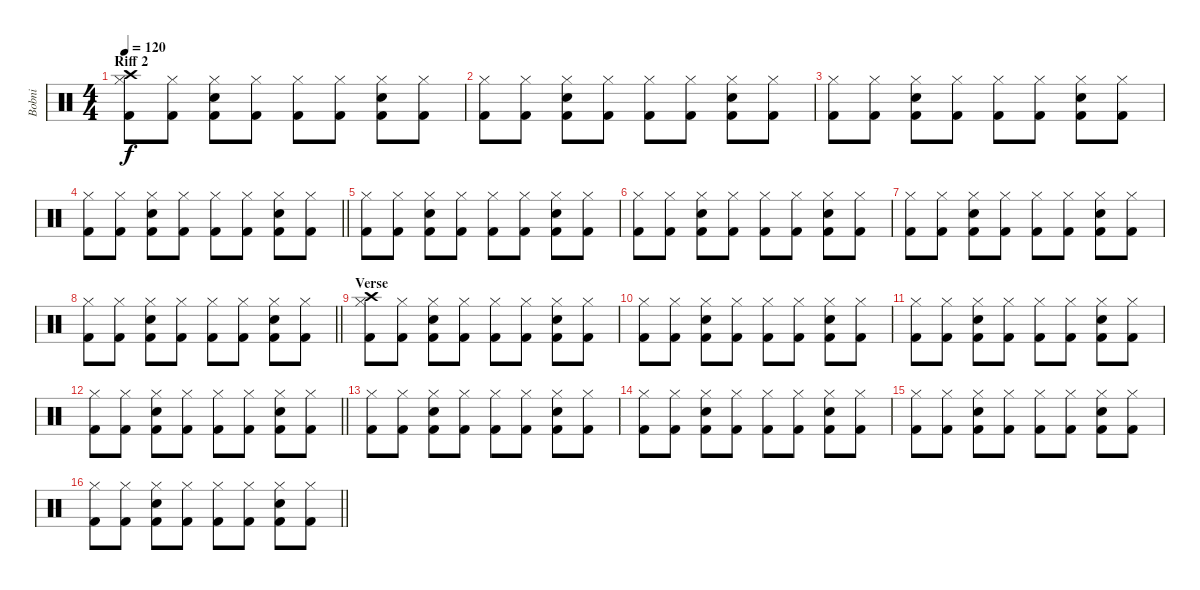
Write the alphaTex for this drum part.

\track ("Bobni" "Bobni") {instrument percussion}
\staff {score}
\articulation defaults
\ts (4 4)
\section ("" "Riff 2")
\tempo 120
\clef neutral
\ks c
("Crash high (hit)" "Hi-Hat (closed)" "Kick (hit) 2").8{dy f} ("Hi-Hat (closed)" "Kick (hit) 2").8 ("Hi-Hat (closed)" "Electric Snare (hit)" "Kick (hit) 2").8 ("Hi-Hat (closed)" "Kick (hit) 2").8 ("Hi-Hat (closed)" "Kick (hit) 2").8 ("Hi-Hat (closed)" "Kick (hit) 2").8 ("Hi-Hat (closed)" "Electric Snare (hit)" "Kick (hit) 2").8 ("Hi-Hat (closed)" "Kick (hit) 2").8 |
("Hi-Hat (closed)" "Kick (hit) 2").8 ("Hi-Hat (closed)" "Kick (hit) 2").8 ("Hi-Hat (closed)" "Electric Snare (hit)" "Kick (hit) 2").8 ("Hi-Hat (closed)" "Kick (hit) 2").8 ("Hi-Hat (closed)" "Kick (hit) 2").8 ("Hi-Hat (closed)" "Kick (hit) 2").8 ("Hi-Hat (closed)" "Electric Snare (hit)" "Kick (hit) 2").8 ("Hi-Hat (closed)" "Kick (hit) 2").8 |
("Hi-Hat (closed)" "Kick (hit) 2").8 ("Hi-Hat (closed)" "Kick (hit) 2").8 ("Hi-Hat (closed)" "Electric Snare (hit)" "Kick (hit) 2").8 ("Hi-Hat (closed)" "Kick (hit) 2").8 ("Hi-Hat (closed)" "Kick (hit) 2").8 ("Hi-Hat (closed)" "Kick (hit) 2").8 ("Hi-Hat (closed)" "Electric Snare (hit)" "Kick (hit) 2").8 ("Hi-Hat (closed)" "Kick (hit) 2").8 |
\barLineRight lightlight
("Hi-Hat (closed)" "Kick (hit) 2").8 ("Hi-Hat (closed)" "Kick (hit) 2").8 ("Hi-Hat (closed)" "Electric Snare (hit)" "Kick (hit) 2").8 ("Hi-Hat (closed)" "Kick (hit) 2").8 ("Hi-Hat (closed)" "Kick (hit) 2").8 ("Hi-Hat (closed)" "Kick (hit) 2").8 ("Hi-Hat (closed)" "Electric Snare (hit)" "Kick (hit) 2").8 ("Hi-Hat (closed)" "Kick (hit) 2").8 |
("Hi-Hat (closed)" "Kick (hit) 2").8 ("Hi-Hat (closed)" "Kick (hit) 2").8 ("Hi-Hat (closed)" "Electric Snare (hit)" "Kick (hit) 2").8 ("Hi-Hat (closed)" "Kick (hit) 2").8 ("Hi-Hat (closed)" "Kick (hit) 2").8 ("Hi-Hat (closed)" "Kick (hit) 2").8 ("Hi-Hat (closed)" "Electric Snare (hit)" "Kick (hit) 2").8 ("Hi-Hat (closed)" "Kick (hit) 2").8 |
("Hi-Hat (closed)" "Kick (hit) 2").8 ("Hi-Hat (closed)" "Kick (hit) 2").8 ("Hi-Hat (closed)" "Electric Snare (hit)" "Kick (hit) 2").8 ("Hi-Hat (closed)" "Kick (hit) 2").8 ("Hi-Hat (closed)" "Kick (hit) 2").8 ("Hi-Hat (closed)" "Kick (hit) 2").8 ("Hi-Hat (closed)" "Electric Snare (hit)" "Kick (hit) 2").8 ("Hi-Hat (closed)" "Kick (hit) 2").8 |
("Hi-Hat (closed)" "Kick (hit) 2").8 ("Hi-Hat (closed)" "Kick (hit) 2").8 ("Hi-Hat (closed)" "Electric Snare (hit)" "Kick (hit) 2").8 ("Hi-Hat (closed)" "Kick (hit) 2").8 ("Hi-Hat (closed)" "Kick (hit) 2").8 ("Hi-Hat (closed)" "Kick (hit) 2").8 ("Hi-Hat (closed)" "Electric Snare (hit)" "Kick (hit) 2").8 ("Hi-Hat (closed)" "Kick (hit) 2").8 |
\barLineRight lightlight
("Hi-Hat (closed)" "Kick (hit) 2").8 ("Hi-Hat (closed)" "Kick (hit) 2").8 ("Hi-Hat (closed)" "Electric Snare (hit)" "Kick (hit) 2").8 ("Hi-Hat (closed)" "Kick (hit) 2").8 ("Hi-Hat (closed)" "Kick (hit) 2").8 ("Hi-Hat (closed)" "Kick (hit) 2").8 ("Hi-Hat (closed)" "Electric Snare (hit)" "Kick (hit) 2").8 ("Hi-Hat (closed)" "Kick (hit) 2").8 |
\section ("" "Verse")
("Crash high (hit)" "Hi-Hat (closed)" "Kick (hit) 2").8 ("Hi-Hat (closed)" "Kick (hit) 2").8 ("Hi-Hat (closed)" "Electric Snare (hit)" "Kick (hit) 2").8 ("Hi-Hat (closed)" "Kick (hit) 2").8 ("Hi-Hat (closed)" "Kick (hit) 2").8 ("Hi-Hat (closed)" "Kick (hit) 2").8 ("Hi-Hat (closed)" "Electric Snare (hit)" "Kick (hit) 2").8 ("Hi-Hat (closed)" "Kick (hit) 2").8 |
("Hi-Hat (closed)" "Kick (hit) 2").8 ("Hi-Hat (closed)" "Kick (hit) 2").8 ("Hi-Hat (closed)" "Electric Snare (hit)" "Kick (hit) 2").8 ("Hi-Hat (closed)" "Kick (hit) 2").8 ("Hi-Hat (closed)" "Kick (hit) 2").8 ("Hi-Hat (closed)" "Kick (hit) 2").8 ("Hi-Hat (closed)" "Electric Snare (hit)" "Kick (hit) 2").8 ("Hi-Hat (closed)" "Kick (hit) 2").8 |
("Hi-Hat (closed)" "Kick (hit) 2").8 ("Hi-Hat (closed)" "Kick (hit) 2").8 ("Hi-Hat (closed)" "Electric Snare (hit)" "Kick (hit) 2").8 ("Hi-Hat (closed)" "Kick (hit) 2").8 ("Hi-Hat (closed)" "Kick (hit) 2").8 ("Hi-Hat (closed)" "Kick (hit) 2").8 ("Hi-Hat (closed)" "Electric Snare (hit)" "Kick (hit) 2").8 ("Hi-Hat (closed)" "Kick (hit) 2").8 |
\barLineRight lightlight
("Hi-Hat (closed)" "Kick (hit) 2").8 ("Hi-Hat (closed)" "Kick (hit) 2").8 ("Hi-Hat (closed)" "Electric Snare (hit)" "Kick (hit) 2").8 ("Hi-Hat (closed)" "Kick (hit) 2").8 ("Hi-Hat (closed)" "Kick (hit) 2").8 ("Hi-Hat (closed)" "Kick (hit) 2").8 ("Hi-Hat (closed)" "Electric Snare (hit)" "Kick (hit) 2").8 ("Hi-Hat (closed)" "Kick (hit) 2").8 |
("Hi-Hat (closed)" "Kick (hit) 2").8 ("Hi-Hat (closed)" "Kick (hit) 2").8 ("Hi-Hat (closed)" "Electric Snare (hit)" "Kick (hit) 2").8 ("Hi-Hat (closed)" "Kick (hit) 2").8 ("Hi-Hat (closed)" "Kick (hit) 2").8 ("Hi-Hat (closed)" "Kick (hit) 2").8 ("Hi-Hat (closed)" "Electric Snare (hit)" "Kick (hit) 2").8 ("Hi-Hat (closed)" "Kick (hit) 2").8 |
("Hi-Hat (closed)" "Kick (hit) 2").8 ("Hi-Hat (closed)" "Kick (hit) 2").8 ("Hi-Hat (closed)" "Electric Snare (hit)" "Kick (hit) 2").8 ("Hi-Hat (closed)" "Kick (hit) 2").8 ("Hi-Hat (closed)" "Kick (hit) 2").8 ("Hi-Hat (closed)" "Kick (hit) 2").8 ("Hi-Hat (closed)" "Electric Snare (hit)" "Kick (hit) 2").8 ("Hi-Hat (closed)" "Kick (hit) 2").8 |
("Hi-Hat (closed)" "Kick (hit) 2").8 ("Hi-Hat (closed)" "Kick (hit) 2").8 ("Hi-Hat (closed)" "Electric Snare (hit)" "Kick (hit) 2").8 ("Hi-Hat (closed)" "Kick (hit) 2").8 ("Hi-Hat (closed)" "Kick (hit) 2").8 ("Hi-Hat (closed)" "Kick (hit) 2").8 ("Hi-Hat (closed)" "Electric Snare (hit)" "Kick (hit) 2").8 ("Hi-Hat (closed)" "Kick (hit) 2").8 |
\barLineRight lightlight
("Hi-Hat (closed)" "Kick (hit) 2").8 ("Hi-Hat (closed)" "Kick (hit) 2").8 ("Hi-Hat (closed)" "Electric Snare (hit)" "Kick (hit) 2").8 ("Hi-Hat (closed)" "Kick (hit) 2").8 ("Hi-Hat (closed)" "Kick (hit) 2").8 ("Hi-Hat (closed)" "Kick (hit) 2").8 ("Hi-Hat (closed)" "Electric Snare (hit)" "Kick (hit) 2").8 ("Hi-Hat (closed)" "Kick (hit) 2").8
